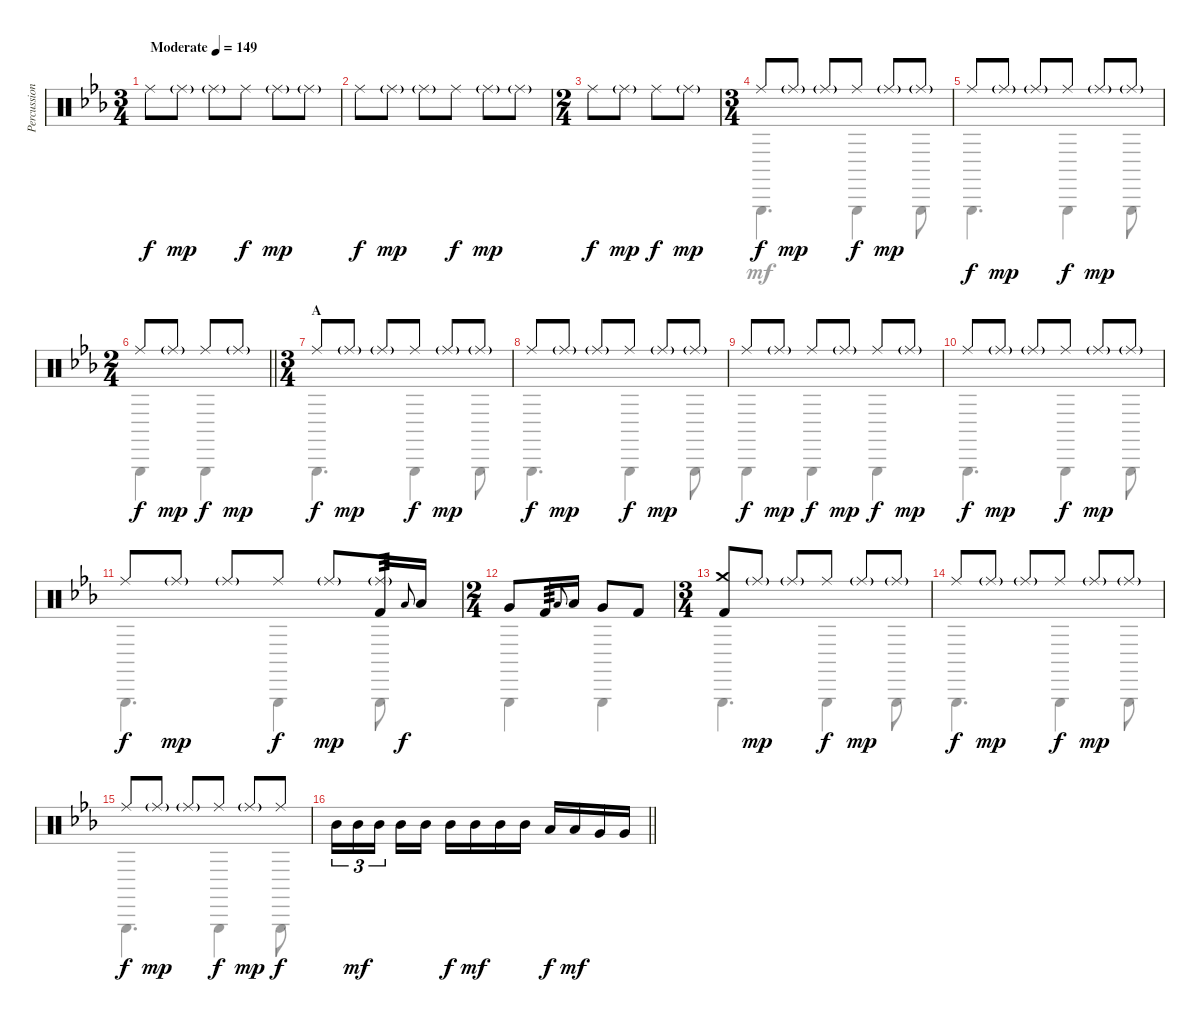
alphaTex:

\track ("Percussion" "Percussion") {instrument percussion}
\staff {score}
\articulation defaults
\voice
\ts (3 4)
\tempo (149 "Moderate")
\clef neutral
\ks cminor "Ride (middle)".8{dy f} "Ride (middle)"{g}.8{dy mp} "Ride (middle)"{g}.8 "Ride (middle)".8{dy f} "Ride (middle)"{g}.8{dy mp} "Ride (middle)"{g}.8
|
"Ride (middle)".8{dy f} "Ride (middle)"{g}.8{dy mp} "Ride (middle)"{g}.8 "Ride (middle)".8{dy f} "Ride (middle)"{g}.8{dy mp} "Ride (middle)"{g}.8 |
\ts (2 4)
"Ride (middle)".8{dy f} "Ride (middle)"{g}.8{dy mp} "Ride (middle)".8{dy f} "Ride (middle)"{g}.8{dy mp} |
\ts (3 4)
"Ride (middle)".8{dy f} "Ride (middle)"{g}.8{dy mp} "Ride (middle)"{g}.8 "Ride (middle)".8{dy f} "Ride (middle)"{g}.8{dy mp} "Ride (middle)"{g}.8 |
"Ride (middle)".8{dy f} "Ride (middle)"{g}.8{dy mp} "Ride (middle)"{g}.8 "Ride (middle)".8{dy f} "Ride (middle)"{g}.8{dy mp} "Ride (middle)"{g}.8 |
\ts (2 4)
\barLineRight lightlight "Ride (middle)".8{dy f} "Ride (middle)"{g}.8{dy mp} "Ride (middle)".8{dy f} "Ride (middle)"{g}.8{dy mp}
|
\ts (3 4)
\section ("" "A")
"Ride (middle)".8{dy f} "Ride (middle)"{g}.8{dy mp} "Ride (middle)"{g}.8 "Ride (middle)".8{dy f} "Ride (middle)"{g}.8{dy mp} "Ride (middle)"{g}.8 |
"Ride (middle)".8{dy f} "Ride (middle)"{g}.8{dy mp} "Ride (middle)"{g}.8 "Ride (middle)".8{dy f} "Ride (middle)"{g}.8{dy mp} "Ride (middle)"{g}.8 |
"Ride (middle)".8{dy f} "Ride (middle)"{g}.8{dy mp} "Ride (middle)".8{dy f} "Ride (middle)"{g}.8{dy mp} "Ride (middle)".8{dy f} "Ride (middle)"{g}.8{dy mp} |
"Ride (middle)".8{dy f} "Ride (middle)"{g}.8{dy mp} "Ride (middle)"{g}.8 "Ride (middle)".8{dy f} "Ride (middle)"{g}.8{dy mp} "Ride (middle)"{g}.8 |
"Ride (middle)".8{dy f} "Ride (middle)"{g}.8{dy mp} "Ride (middle)"{g}.8 "Ride (middle)".8{dy f} "Ride (middle)"{g}.8{dy mp} ("Ride (middle)"{g} "Kick (hit) 2").16{tp 3} "Low Tom (hit)".8{gr onbeat dy f} "Low Tom (hit)".16 |
\ts (2 4)
"Very Low Tom (hit)".8 "Kick (hit) 2".16{tp 3} "Low Tom (hit)".8{gr onbeat} "Low Tom (hit)".16 "Very Low Tom (hit)".8 "Kick (hit) 2".8 |
\ts (3 4)
("Crash medium (hit)" "Kick (hit) 2").8 "Ride (middle)"{g}.8{dy mp} "Ride (middle)"{g}.8 "Ride (middle)".8{dy f} "Ride (middle)"{g}.8{dy mp} "Ride (middle)"{g}.8 |
"Ride (middle)".8{dy f} "Ride (middle)"{g}.8{dy mp} "Ride (middle)"{g}.8 "Ride (middle)".8{dy f} "Ride (middle)"{g}.8{dy mp} "Ride (middle)"{g}.8 |
"Ride (middle)".8{dy f} "Ride (middle)"{g}.8{dy mp} "Ride (middle)"{g}.8 "Ride (middle)".8{dy f} "Ride (middle)"{g}.8{dy mp} "Ride (middle)".8{dy f} |
\barLineRight lightlight "Mid Tom (hit)".16{tu (3 2)} "Mid Tom (hit)".16{tu (3 2) dy mf} "Mid Tom (hit)".16{tu (3 2) beam splitsecondary} "Mid Tom (hit)".16 "Mid Tom (hit)".16 "Mid Tom (hit)".16{dy f} "Mid Tom (hit)".16{dy mf} "Mid Tom (hit)".16 "Mid Tom (hit)".16 "Low Tom (hit)".16{dy f} "Low Tom (hit)".16{dy mf} "Very Low Tom (hit)".16 "Very Low Tom (hit)".16
\voice
\clef neutral
\ottava regular
\simile none
\ks cminor
|
|
|
"Triangle (hit)".4{d} "Triangle (hit)".4 "Triangle (hit)".8 |
"Triangle (hit)".4{d} "Triangle (hit)".4 "Triangle (hit)".8 |
\barLineRight lightlight "Triangle (hit)".4 "Triangle (hit)".4
|
"Triangle (hit)".4{d} "Triangle (hit)".4 "Triangle (hit)".8 |
"Triangle (hit)".4{d} "Triangle (hit)".4 "Triangle (hit)".8 |
"Triangle (hit)".4 "Triangle (hit)".4 "Triangle (hit)".4 |
"Triangle (hit)".4{d} "Triangle (hit)".4 "Triangle (hit)".8 |
"Triangle (hit)".4{d} "Triangle (hit)".4 "Triangle (hit)".8 |
"Triangle (hit)".4 "Triangle (hit)".4 |
"Triangle (hit)".4{d} "Triangle (hit)".4 "Triangle (hit)".8 |
"Triangle (hit)".4{d} "Triangle (hit)".4 "Triangle (hit)".8 |
"Triangle (hit)".4{d} "Triangle (hit)".4 "Triangle (hit)".8 |
\barLineRight lightlight
